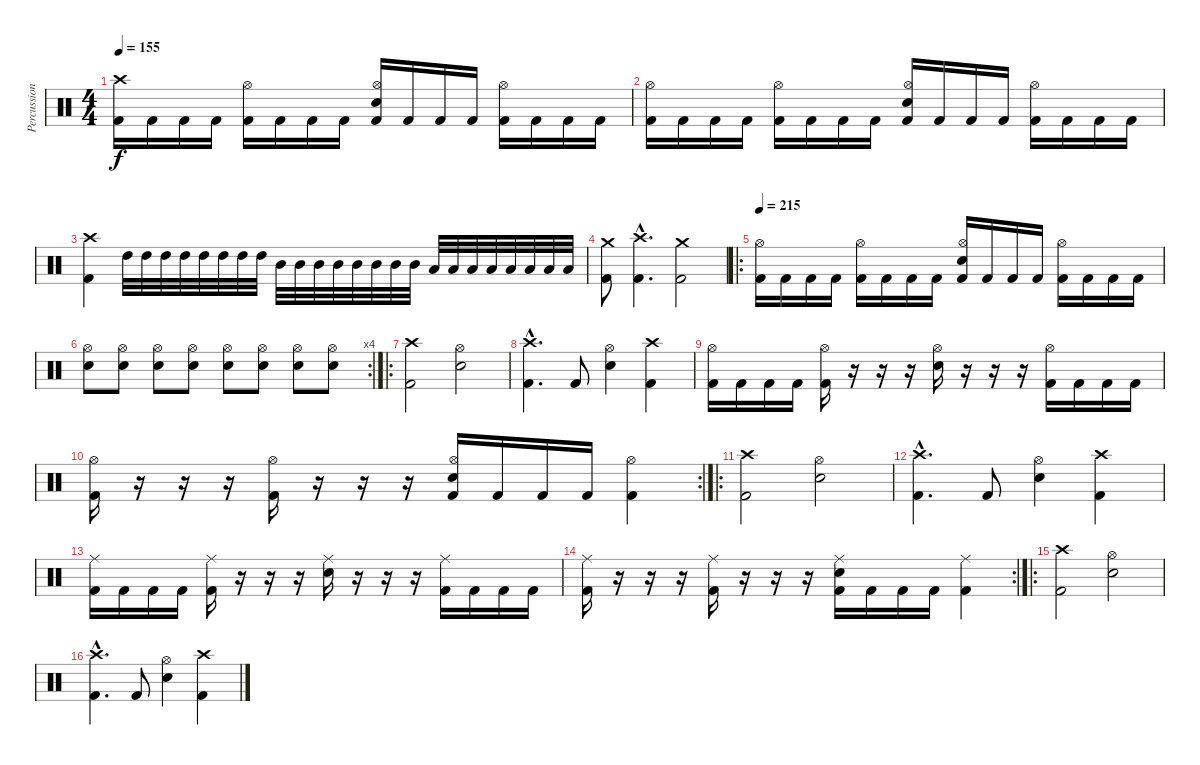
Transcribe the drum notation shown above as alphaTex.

\track ("Percussions" "Percussion") {instrument percussion}
\staff {score}
\articulation defaults
\ts (4 4)
\tempo 155
\clef neutral
\ks c
("Crash high (hit)" "Kick (hit) 2").16{dy f} "Kick (hit) 2".16 "Kick (hit) 2".16 "Kick (hit) 2".16 ("Hi-Hat (open)" "Kick (hit) 2").16 "Kick (hit) 2".16 "Kick (hit) 2".16 "Kick (hit) 2".16 ("Hi-Hat (open)" "Electric Snare (hit)" "Kick (hit) 2").16 "Kick (hit) 2".16 "Kick (hit) 2".16 "Kick (hit) 2".16 ("Hi-Hat (open)" "Kick (hit) 2").16 "Kick (hit) 2".16 "Kick (hit) 2".16 "Kick (hit) 2".16 |
("Hi-Hat (open)" "Kick (hit) 2").16 "Kick (hit) 2".16 "Kick (hit) 2".16 "Kick (hit) 2".16 ("Hi-Hat (open)" "Kick (hit) 2").16 "Kick (hit) 2".16 "Kick (hit) 2".16 "Kick (hit) 2".16 ("Hi-Hat (open)" "Electric Snare (hit)" "Kick (hit) 2").16 "Kick (hit) 2".16 "Kick (hit) 2".16 "Kick (hit) 2".16 ("Hi-Hat (open)" "Kick (hit) 2").16 "Kick (hit) 2".16 "Kick (hit) 2".16 "Kick (hit) 2".16 |
("Crash high (hit)" "Kick (hit) 2").4 "High Tom (hit)".32 "High Tom (hit)".32 "High Tom (hit)".32 "High Tom (hit)".32 "High Tom (hit)".32 "High Tom (hit)".32 "High Tom (hit)".32 "High Tom (hit)".32 "Mid Tom (hit)".32 "Mid Tom (hit)".32 "Mid Tom (hit)".32 "Mid Tom (hit)".32 "Mid Tom (hit)".32 "Mid Tom (hit)".32 "Mid Tom (hit)".32 "Mid Tom (hit)".32 "Low Tom (hit)".32 "Low Tom (hit)".32 "Low Tom (hit)".32 "Low Tom (hit)".32 "Low Tom (hit)".32 "Low Tom (hit)".32 "Low Tom (hit)".32 "Low Tom (hit)".32 |
("Crash medium (hit)" "Kick (hit) 2").8 ("Crash high (hit)"{hac} "Kick (hit) 2"{hac}).4{d} ("Crash medium (hit)" "Kick (hit) 2").2 |
\ro
\tempo 215
("Hi-Hat (open)" "Kick (hit) 2").16 "Kick (hit) 2".16 "Kick (hit) 2".16 "Kick (hit) 2".16 ("Hi-Hat (open)" "Kick (hit) 2").16 "Kick (hit) 2".16 "Kick (hit) 2".16 "Kick (hit) 2".16 ("Hi-Hat (open)" "Electric Snare (hit)" "Kick (hit) 2").16 "Kick (hit) 2".16 "Kick (hit) 2".16 "Kick (hit) 2".16 ("Hi-Hat (open)" "Kick (hit) 2").16 "Kick (hit) 2".16 "Kick (hit) 2".16 "Kick (hit) 2".16 |
\rc 4
("Hi-Hat (open)" "Electric Snare (hit)").8 ("Hi-Hat (open)" "Electric Snare (hit)").8 ("Hi-Hat (open)" "Electric Snare (hit)").8 ("Hi-Hat (open)" "Electric Snare (hit)").8 ("Hi-Hat (open)" "Electric Snare (hit)").8 ("Hi-Hat (open)" "Electric Snare (hit)").8 ("Hi-Hat (open)" "Electric Snare (hit)").8 ("Hi-Hat (open)" "Electric Snare (hit)").8 |
\ro
("Crash high (hit)" "Kick (hit) 2").2 ("Hi-Hat (open)" "Electric Snare (hit)").2 |
("Crash high (hit)"{hac} "Kick (hit) 2"{hac}).4{d} "Kick (hit) 2".8 ("Hi-Hat (open)" "Electric Snare (hit)").4 ("Crash high (hit)" "Kick (hit) 2").4 |
("Hi-Hat (open)" "Kick (hit) 2").16 "Kick (hit) 2".16 "Kick (hit) 2".16 "Kick (hit) 2".16 ("Hi-Hat (open)" "Kick (hit) 2").16 r.16 r.16 r.16 ("Hi-Hat (open)" "Electric Snare (hit)").16 r.16 r.16 r.16 ("Hi-Hat (open)" "Kick (hit) 2").16 "Kick (hit) 2".16 "Kick (hit) 2".16 "Kick (hit) 2".16 |
\rc 2
("Hi-Hat (open)" "Kick (hit) 2").16 r.16 r.16 r.16 ("Hi-Hat (open)" "Kick (hit) 2").16 r.16 r.16 r.16 ("Hi-Hat (open)" "Electric Snare (hit)" "Kick (hit) 2").16 "Kick (hit) 2".16 "Kick (hit) 2".16 "Kick (hit) 2".16 ("Hi-Hat (open)" "Kick (hit) 2").4 |
\ro
("Crash high (hit)" "Kick (hit) 2").2 ("Hi-Hat (open)" "Electric Snare (hit)").2 |
("Crash high (hit)"{hac} "Kick (hit) 2"{hac}).4{d} "Kick (hit) 2".8 ("Hi-Hat (open)" "Electric Snare (hit)").4 ("Crash high (hit)" "Kick (hit) 2").4 |
("Ride (middle)" "Kick (hit) 2").16 "Kick (hit) 2".16 "Kick (hit) 2".16 "Kick (hit) 2".16 ("Ride (middle)" "Kick (hit) 2").16 r.16 r.16 r.16 ("Ride (middle)" "Electric Snare (hit)").16 r.16 r.16 r.16 ("Ride (middle)" "Kick (hit) 2").16 "Kick (hit) 2".16 "Kick (hit) 2".16 "Kick (hit) 2".16 |
\rc 2
("Ride (middle)" "Kick (hit) 2").16 r.16 r.16 r.16 ("Ride (middle)" "Kick (hit) 2").16 r.16 r.16 r.16 ("Ride (middle)" "Electric Snare (hit)" "Kick (hit) 2").16 "Kick (hit) 2".16 "Kick (hit) 2".16 "Kick (hit) 2".16 ("Ride (middle)" "Kick (hit) 2").4 |
\ro
("Crash high (hit)" "Kick (hit) 2").2 ("Hi-Hat (open)" "Electric Snare (hit)").2 |
("Crash high (hit)"{hac} "Kick (hit) 2"{hac}).4{d} "Kick (hit) 2".8 ("Hi-Hat (open)" "Electric Snare (hit)").4 ("Crash high (hit)" "Kick (hit) 2").4
